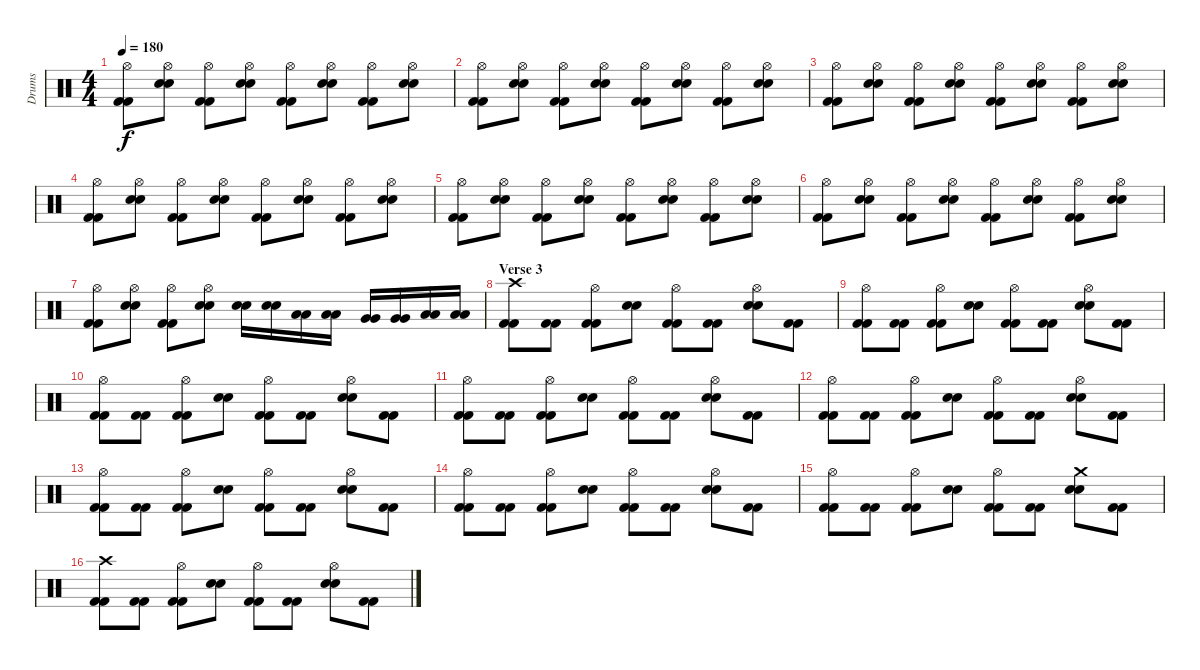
\track ("Drums" "Drums") {instrument percussion}
\staff {score}
\articulation defaults
\ts (4 4)
\tempo 180
\clef neutral
\ks c
("Hi-Hat (open)" "Kick (hit) 2" "Kick (hit) 2").8{dy f} ("Hi-Hat (open)" "Snare (hit) 2" "Snare (hit) 2").8 ("Hi-Hat (open)" "Kick (hit) 2" "Kick (hit) 2").8 ("Hi-Hat (open)" "Snare (hit) 2" "Snare (hit) 2").8 ("Hi-Hat (open)" "Kick (hit) 2" "Kick (hit) 2").8 ("Hi-Hat (open)" "Snare (hit) 2" "Snare (hit) 2").8 ("Hi-Hat (open)" "Kick (hit) 2" "Kick (hit) 2").8 ("Hi-Hat (open)" "Snare (hit) 2" "Snare (hit) 2").8 |
("Hi-Hat (open)" "Kick (hit) 2" "Kick (hit) 2").8 ("Hi-Hat (open)" "Snare (hit) 2" "Snare (hit) 2").8 ("Hi-Hat (open)" "Kick (hit) 2" "Kick (hit) 2").8 ("Hi-Hat (open)" "Snare (hit) 2" "Snare (hit) 2").8 ("Hi-Hat (open)" "Kick (hit) 2" "Kick (hit) 2").8 ("Hi-Hat (open)" "Snare (hit) 2" "Snare (hit) 2").8 ("Hi-Hat (open)" "Kick (hit) 2" "Kick (hit) 2").8 ("Hi-Hat (open)" "Snare (hit) 2" "Snare (hit) 2").8 |
("Hi-Hat (open)" "Kick (hit) 2" "Kick (hit) 2").8 ("Hi-Hat (open)" "Snare (hit) 2" "Snare (hit) 2").8 ("Hi-Hat (open)" "Kick (hit) 2" "Kick (hit) 2").8 ("Hi-Hat (open)" "Snare (hit) 2" "Snare (hit) 2").8 ("Hi-Hat (open)" "Kick (hit) 2" "Kick (hit) 2").8 ("Hi-Hat (open)" "Snare (hit) 2" "Snare (hit) 2").8 ("Hi-Hat (open)" "Kick (hit) 2" "Kick (hit) 2").8 ("Hi-Hat (open)" "Snare (hit) 2" "Snare (hit) 2").8 |
("Hi-Hat (open)" "Kick (hit) 2" "Kick (hit) 2").8 ("Hi-Hat (open)" "Snare (hit) 2" "Snare (hit) 2").8 ("Hi-Hat (open)" "Kick (hit) 2" "Kick (hit) 2").8 ("Hi-Hat (open)" "Snare (hit) 2" "Snare (hit) 2").8 ("Hi-Hat (open)" "Kick (hit) 2" "Kick (hit) 2").8 ("Hi-Hat (open)" "Snare (hit) 2" "Snare (hit) 2").8 ("Hi-Hat (open)" "Kick (hit) 2" "Kick (hit) 2").8 ("Hi-Hat (open)" "Snare (hit) 2" "Snare (hit) 2").8 |
("Hi-Hat (open)" "Kick (hit) 2" "Kick (hit) 2").8 ("Hi-Hat (open)" "Snare (hit) 2" "Snare (hit) 2").8 ("Hi-Hat (open)" "Kick (hit) 2" "Kick (hit) 2").8 ("Hi-Hat (open)" "Snare (hit) 2" "Snare (hit) 2").8 ("Hi-Hat (open)" "Kick (hit) 2" "Kick (hit) 2").8 ("Hi-Hat (open)" "Snare (hit) 2" "Snare (hit) 2").8 ("Hi-Hat (open)" "Kick (hit) 2" "Kick (hit) 2").8 ("Hi-Hat (open)" "Snare (hit) 2" "Snare (hit) 2").8 |
("Hi-Hat (open)" "Kick (hit) 2" "Kick (hit) 2").8 ("Hi-Hat (open)" "Snare (hit) 2" "Snare (hit) 2").8 ("Hi-Hat (open)" "Kick (hit) 2" "Kick (hit) 2").8 ("Hi-Hat (open)" "Snare (hit) 2" "Snare (hit) 2").8 ("Hi-Hat (open)" "Kick (hit) 2" "Kick (hit) 2").8 ("Hi-Hat (open)" "Snare (hit) 2" "Snare (hit) 2").8 ("Hi-Hat (open)" "Kick (hit) 2" "Kick (hit) 2").8 ("Hi-Hat (open)" "Snare (hit) 2" "Snare (hit) 2").8 |
("Hi-Hat (open)" "Kick (hit) 2" "Kick (hit) 2").8 ("Hi-Hat (open)" "Snare (hit) 2" "Snare (hit) 2").8 ("Hi-Hat (open)" "Kick (hit) 2" "Kick (hit) 2").8 ("Hi-Hat (open)" "Snare (hit) 2" "Snare (hit) 2").8 ("Snare (hit) 2" "Snare (hit) 2").16 ("Snare (hit) 2" "Snare (hit) 2").16 ("Low Tom (hit)" "Low Tom (hit)").16 ("Low Tom (hit)" "Low Tom (hit)").16 ("Very Low Tom (hit)" "Very Low Tom (hit)").16 ("Very Low Tom (hit)" "Very Low Tom (hit)").16 ("Low Floor Tom (hit)" "Low Floor Tom (hit)").16 ("Low Floor Tom (hit)" "Low Floor Tom (hit)").16 |
\section ("" "Verse 3")
("Crash high (hit)" "Kick (hit) 2" "Kick (hit) 2").8 ("Kick (hit) 2" "Kick (hit) 2").8 ("Hi-Hat (open)" "Kick (hit) 2" "Kick (hit) 2").8 ("Snare (hit) 2" "Snare (hit) 2").8 ("Hi-Hat (open)" "Kick (hit) 2" "Kick (hit) 2").8 ("Kick (hit) 2" "Kick (hit) 2").8 ("Hi-Hat (open)" "Snare (hit) 2" "Snare (hit) 2").8 ("Kick (hit) 2" "Kick (hit) 2").8 |
("Hi-Hat (open)" "Kick (hit) 2" "Kick (hit) 2").8 ("Kick (hit) 2" "Kick (hit) 2").8 ("Hi-Hat (open)" "Kick (hit) 2" "Kick (hit) 2").8 ("Snare (hit) 2" "Snare (hit) 2").8 ("Hi-Hat (open)" "Kick (hit) 2" "Kick (hit) 2").8 ("Kick (hit) 2" "Kick (hit) 2").8 ("Hi-Hat (open)" "Snare (hit) 2" "Snare (hit) 2").8 ("Kick (hit) 2" "Kick (hit) 2").8 |
("Hi-Hat (open)" "Kick (hit) 2" "Kick (hit) 2").8 ("Kick (hit) 2" "Kick (hit) 2").8 ("Hi-Hat (open)" "Kick (hit) 2" "Kick (hit) 2").8 ("Snare (hit) 2" "Snare (hit) 2").8 ("Hi-Hat (open)" "Kick (hit) 2" "Kick (hit) 2").8 ("Kick (hit) 2" "Kick (hit) 2").8 ("Hi-Hat (open)" "Snare (hit) 2" "Snare (hit) 2").8 ("Kick (hit) 2" "Kick (hit) 2").8 |
("Hi-Hat (open)" "Kick (hit) 2" "Kick (hit) 2").8 ("Kick (hit) 2" "Kick (hit) 2").8 ("Hi-Hat (open)" "Kick (hit) 2" "Kick (hit) 2").8 ("Snare (hit) 2" "Snare (hit) 2").8 ("Hi-Hat (open)" "Kick (hit) 2" "Kick (hit) 2").8 ("Kick (hit) 2" "Kick (hit) 2").8 ("Hi-Hat (open)" "Snare (hit) 2" "Snare (hit) 2").8 ("Kick (hit) 2" "Kick (hit) 2").8 |
("Hi-Hat (open)" "Kick (hit) 2" "Kick (hit) 2").8 ("Kick (hit) 2" "Kick (hit) 2").8 ("Hi-Hat (open)" "Kick (hit) 2" "Kick (hit) 2").8 ("Snare (hit) 2" "Snare (hit) 2").8 ("Hi-Hat (open)" "Kick (hit) 2" "Kick (hit) 2").8 ("Kick (hit) 2" "Kick (hit) 2").8 ("Hi-Hat (open)" "Snare (hit) 2" "Snare (hit) 2").8 ("Kick (hit) 2" "Kick (hit) 2").8 |
("Hi-Hat (open)" "Kick (hit) 2" "Kick (hit) 2").8 ("Kick (hit) 2" "Kick (hit) 2").8 ("Hi-Hat (open)" "Kick (hit) 2" "Kick (hit) 2").8 ("Snare (hit) 2" "Snare (hit) 2").8 ("Hi-Hat (open)" "Kick (hit) 2" "Kick (hit) 2").8 ("Kick (hit) 2" "Kick (hit) 2").8 ("Hi-Hat (open)" "Snare (hit) 2" "Snare (hit) 2").8 ("Kick (hit) 2" "Kick (hit) 2").8 |
("Hi-Hat (open)" "Kick (hit) 2" "Kick (hit) 2").8 ("Kick (hit) 2" "Kick (hit) 2").8 ("Hi-Hat (open)" "Kick (hit) 2" "Kick (hit) 2").8 ("Snare (hit) 2" "Snare (hit) 2").8 ("Hi-Hat (open)" "Kick (hit) 2" "Kick (hit) 2").8 ("Kick (hit) 2" "Kick (hit) 2").8 ("Hi-Hat (open)" "Snare (hit) 2" "Snare (hit) 2").8 ("Kick (hit) 2" "Kick (hit) 2").8 |
("Hi-Hat (open)" "Kick (hit) 2" "Kick (hit) 2").8 ("Kick (hit) 2" "Kick (hit) 2").8 ("Hi-Hat (open)" "Kick (hit) 2" "Kick (hit) 2").8 ("Snare (hit) 2" "Snare (hit) 2").8 ("Hi-Hat (open)" "Kick (hit) 2" "Kick (hit) 2").8 ("Kick (hit) 2" "Kick (hit) 2").8 ("Crash medium (hit)" "Snare (hit) 2" "Snare (hit) 2").8 ("Kick (hit) 2" "Kick (hit) 2").8 |
("Crash high (hit)" "Kick (hit) 2" "Kick (hit) 2").8 ("Kick (hit) 2" "Kick (hit) 2").8 ("Hi-Hat (open)" "Kick (hit) 2" "Kick (hit) 2").8 ("Snare (hit) 2" "Snare (hit) 2").8 ("Hi-Hat (open)" "Kick (hit) 2" "Kick (hit) 2").8 ("Kick (hit) 2" "Kick (hit) 2").8 ("Hi-Hat (open)" "Snare (hit) 2" "Snare (hit) 2").8 ("Kick (hit) 2" "Kick (hit) 2").8
